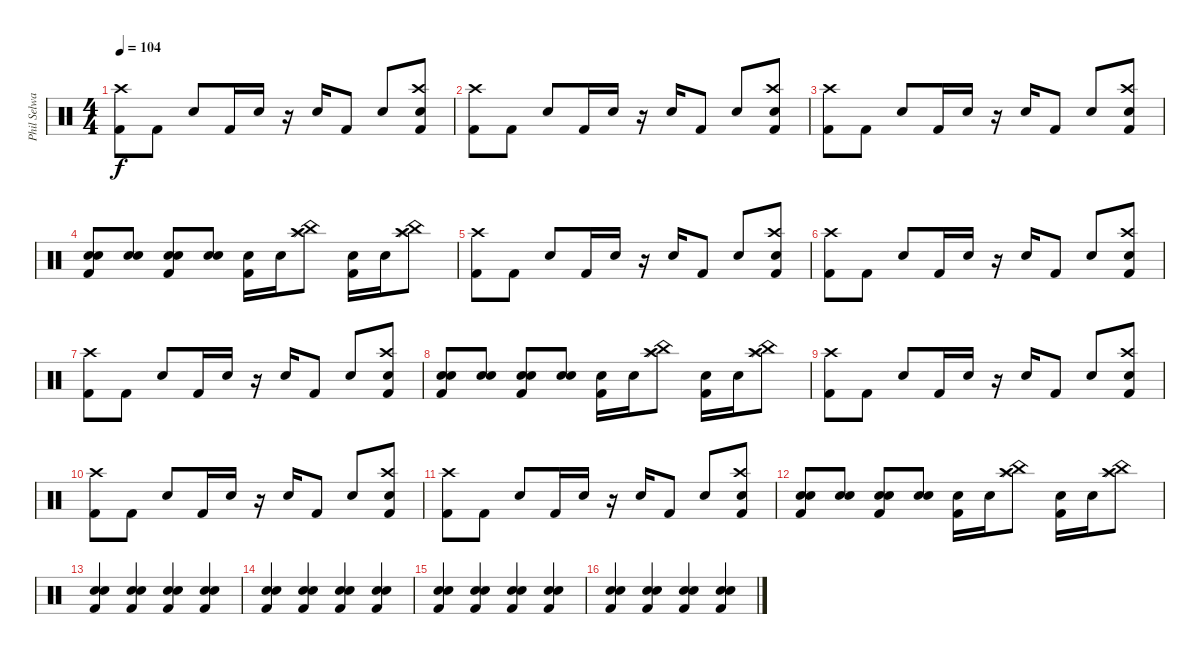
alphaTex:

\track ("Phil Selway" "Phil Selwa") {instrument percussion}
\staff {score}
\articulation defaults
\ts (4 4)
\tempo 104
\clef neutral
\ks c
("Kick (hit) 2" "Crash high (hit)").8{dy f} "Kick (hit) 2".8 "Electric Snare (hit)".8 "Kick (hit) 2".16 "Electric Snare (hit)".16 r.16 "Electric Snare (hit)".16 "Kick (hit) 2".8 "Electric Snare (hit)".8 ("Kick (hit) 2" "Crash high (hit)" "Electric Snare (hit)").8 |
("Kick (hit) 2" "Crash high (hit)").8 "Kick (hit) 2".8 "Electric Snare (hit)".8 "Kick (hit) 2".16 "Electric Snare (hit)".16 r.16 "Electric Snare (hit)".16 "Kick (hit) 2".8 "Electric Snare (hit)".8 ("Kick (hit) 2" "Crash high (hit)" "Electric Snare (hit)").8 |
("Kick (hit) 2" "Crash high (hit)").8 "Kick (hit) 2".8 "Electric Snare (hit)".8 "Kick (hit) 2".16 "Electric Snare (hit)".16 r.16 "Electric Snare (hit)".16 "Kick (hit) 2".8 "Electric Snare (hit)".8 ("Kick (hit) 2" "Crash high (hit)" "Electric Snare (hit)").8 |
("Electric Snare (hit)" "Snare (hit) 2" "Kick (hit) 2").8 ("Electric Snare (hit)" "Snare (hit) 2").8 ("Electric Snare (hit)" "Snare (hit) 2" "Kick (hit) 2").8 ("Electric Snare (hit)" "Snare (hit) 2").8 ("Electric Snare (hit)" "Kick (hit) 2").16 "Electric Snare (hit)".16 ("Splash (hit)" "China (hit)" "Crash high (hit)").8 ("Electric Snare (hit)" "Kick (hit) 2").16 "Electric Snare (hit)".16 ("Splash (hit)" "China (hit)" "Crash high (hit)").8 |
("Kick (hit) 2" "Crash high (hit)").8 "Kick (hit) 2".8 "Electric Snare (hit)".8 "Kick (hit) 2".16 "Electric Snare (hit)".16 r.16 "Electric Snare (hit)".16 "Kick (hit) 2".8 "Electric Snare (hit)".8 ("Kick (hit) 2" "Crash high (hit)" "Electric Snare (hit)").8 |
("Kick (hit) 2" "Crash high (hit)").8 "Kick (hit) 2".8 "Electric Snare (hit)".8 "Kick (hit) 2".16 "Electric Snare (hit)".16 r.16 "Electric Snare (hit)".16 "Kick (hit) 2".8 "Electric Snare (hit)".8 ("Kick (hit) 2" "Crash high (hit)" "Electric Snare (hit)").8 |
("Kick (hit) 2" "Crash high (hit)").8 "Kick (hit) 2".8 "Electric Snare (hit)".8 "Kick (hit) 2".16 "Electric Snare (hit)".16 r.16 "Electric Snare (hit)".16 "Kick (hit) 2".8 "Electric Snare (hit)".8 ("Kick (hit) 2" "Crash high (hit)" "Electric Snare (hit)").8 |
("Electric Snare (hit)" "Snare (hit) 2" "Kick (hit) 2").8 ("Electric Snare (hit)" "Snare (hit) 2").8 ("Electric Snare (hit)" "Snare (hit) 2" "Kick (hit) 2").8 ("Electric Snare (hit)" "Snare (hit) 2").8 ("Electric Snare (hit)" "Kick (hit) 2").16 "Electric Snare (hit)".16 ("Splash (hit)" "China (hit)" "Crash high (hit)").8 ("Electric Snare (hit)" "Kick (hit) 2").16 "Electric Snare (hit)".16 ("Splash (hit)" "China (hit)" "Crash high (hit)").8 |
("Kick (hit) 2" "Crash high (hit)").8 "Kick (hit) 2".8 "Electric Snare (hit)".8 "Kick (hit) 2".16 "Electric Snare (hit)".16 r.16 "Electric Snare (hit)".16 "Kick (hit) 2".8 "Electric Snare (hit)".8 ("Kick (hit) 2" "Crash high (hit)" "Electric Snare (hit)").8 |
("Kick (hit) 2" "Crash high (hit)").8 "Kick (hit) 2".8 "Electric Snare (hit)".8 "Kick (hit) 2".16 "Electric Snare (hit)".16 r.16 "Electric Snare (hit)".16 "Kick (hit) 2".8 "Electric Snare (hit)".8 ("Kick (hit) 2" "Crash high (hit)" "Electric Snare (hit)").8 |
("Kick (hit) 2" "Crash high (hit)").8 "Kick (hit) 2".8 "Electric Snare (hit)".8 "Kick (hit) 2".16 "Electric Snare (hit)".16 r.16 "Electric Snare (hit)".16 "Kick (hit) 2".8 "Electric Snare (hit)".8 ("Kick (hit) 2" "Crash high (hit)" "Electric Snare (hit)").8 |
("Electric Snare (hit)" "Snare (hit) 2" "Kick (hit) 2").8 ("Electric Snare (hit)" "Snare (hit) 2").8 ("Electric Snare (hit)" "Snare (hit) 2" "Kick (hit) 2").8 ("Electric Snare (hit)" "Snare (hit) 2").8 ("Electric Snare (hit)" "Kick (hit) 2").16 "Electric Snare (hit)".16 ("Splash (hit)" "China (hit)" "Crash high (hit)").8 ("Electric Snare (hit)" "Kick (hit) 2").16 "Electric Snare (hit)".16 ("Splash (hit)" "China (hit)" "Crash high (hit)").8 |
("Kick (hit) 2" "Hand Clap (hit)" "Snare (hit) 2").4 ("Kick (hit) 2" "Hand Clap (hit)" "Snare (hit) 2").4 ("Kick (hit) 2" "Hand Clap (hit)" "Snare (hit) 2").4 ("Kick (hit) 2" "Hand Clap (hit)" "Snare (hit) 2").4 |
("Kick (hit) 2" "Hand Clap (hit)" "Snare (hit) 2").4 ("Kick (hit) 2" "Hand Clap (hit)" "Snare (hit) 2").4 ("Kick (hit) 2" "Hand Clap (hit)" "Snare (hit) 2").4 ("Kick (hit) 2" "Hand Clap (hit)" "Snare (hit) 2").4 |
("Kick (hit) 2" "Hand Clap (hit)" "Snare (hit) 2").4 ("Kick (hit) 2" "Hand Clap (hit)" "Snare (hit) 2").4 ("Kick (hit) 2" "Hand Clap (hit)" "Snare (hit) 2").4 ("Kick (hit) 2" "Hand Clap (hit)" "Snare (hit) 2").4 |
("Kick (hit) 2" "Hand Clap (hit)" "Snare (hit) 2").4 ("Kick (hit) 2" "Hand Clap (hit)" "Snare (hit) 2").4 ("Kick (hit) 2" "Hand Clap (hit)" "Snare (hit) 2").4 ("Kick (hit) 2" "Hand Clap (hit)" "Snare (hit) 2").4
